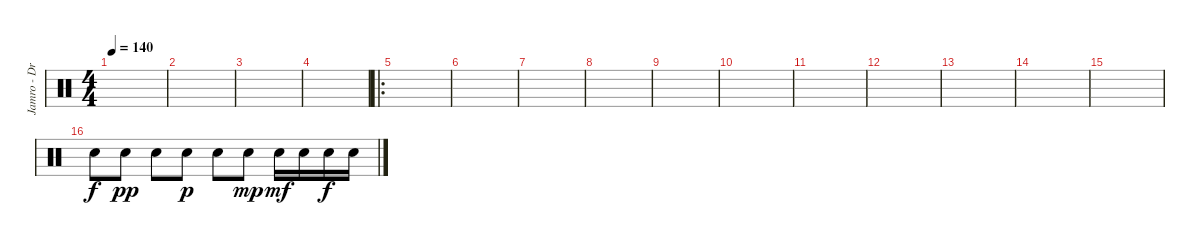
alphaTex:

\track ("Jamro - Drums" "Jamro - Dr") {instrument percussion}
\staff {score}
\articulation defaults
\ts (4 4)
\tempo 140
\clef neutral
\ks c
|
|
|
|
\ro
|
|
|
|
|
|
|
|
|
|
|
"Electric Snare (hit)".8 "Electric Snare (hit)".8{dy pp} "Electric Snare (hit)".8 "Electric Snare (hit)".8{dy p} "Electric Snare (hit)".8 "Electric Snare (hit)".8{dy mp} "Electric Snare (hit)".16{dy mf} "Electric Snare (hit)".16 "Electric Snare (hit)".16{dy f} "Electric Snare (hit)".16
